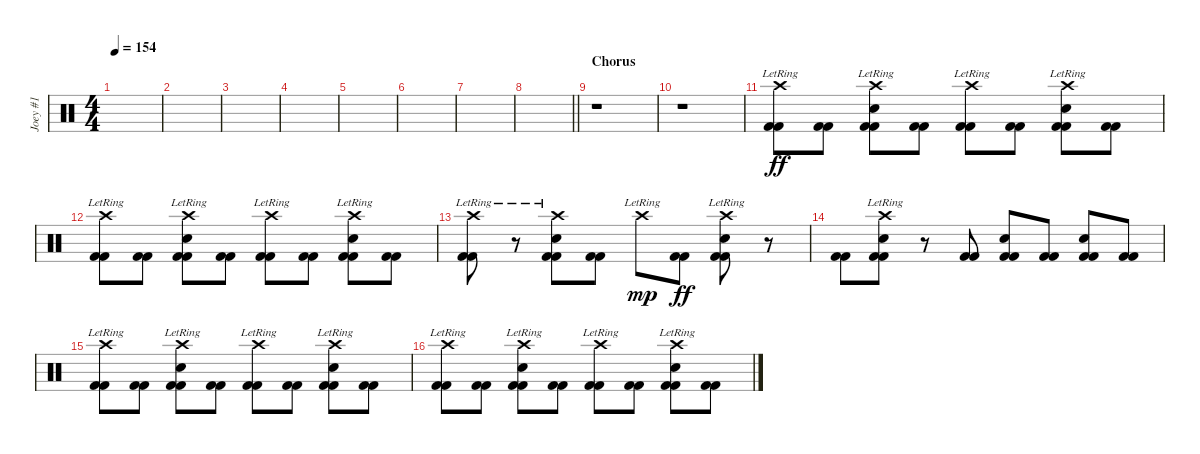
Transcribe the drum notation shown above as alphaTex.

\track ("Joey #1" "Joey #1") {instrument percussion}
\staff {score}
\articulation defaults
\ts (4 4)
\tempo 154
\clef neutral
\ks c
|
|
|
|
|
|
|
\barLineRight lightlight
|
\section ("" "Chorus")
r.1 |
r.1 |
("Crash high (hit)"{lr} "Kick (hit) 2" "Kick (hit) 2").8{dy ff} ("Kick (hit) 2" "Kick (hit) 2").8 ("Crash high (hit)"{lr} "Snare (hit) 2" "Kick (hit) 2" "Kick (hit) 2").8 ("Kick (hit) 2" "Kick (hit) 2").8 ("Crash high (hit)"{lr} "Kick (hit) 2" "Kick (hit) 2").8 ("Kick (hit) 2" "Kick (hit) 2").8 ("Crash high (hit)"{lr} "Snare (hit) 2" "Kick (hit) 2" "Kick (hit) 2").8 ("Kick (hit) 2" "Kick (hit) 2").8 |
("Crash high (hit)"{lr} "Kick (hit) 2" "Kick (hit) 2").8 ("Kick (hit) 2" "Kick (hit) 2").8 ("Crash high (hit)"{lr} "Snare (hit) 2" "Kick (hit) 2" "Kick (hit) 2").8 ("Kick (hit) 2" "Kick (hit) 2").8 ("Crash high (hit)"{lr} "Kick (hit) 2" "Kick (hit) 2").8 ("Kick (hit) 2" "Kick (hit) 2").8 ("Crash high (hit)"{lr} "Snare (hit) 2" "Kick (hit) 2" "Kick (hit) 2").8 ("Kick (hit) 2" "Kick (hit) 2").8 |
("Crash high (hit)"{lr} "Kick (hit) 2" "Kick (hit) 2").8 r.8 ("Crash high (hit)"{lr} "Snare (hit) 2" "Kick (hit) 2" "Kick (hit) 2").8 ("Kick (hit) 2" "Kick (hit) 2").8 "Crash high (hit)"{lr}.8{dy mp} ("Kick (hit) 2" "Kick (hit) 2").8{dy ff} ("Crash high (hit)"{lr} "Snare (hit) 2" "Kick (hit) 2" "Kick (hit) 2").8 r.8 |
("Kick (hit) 2" "Kick (hit) 2").8 ("Crash high (hit)"{lr} "Snare (hit) 2" "Kick (hit) 2" "Kick (hit) 2").8 r.8 ("Kick (hit) 2" "Kick (hit) 2").8 ("Snare (hit) 2" "Kick (hit) 2" "Kick (hit) 2").8 ("Kick (hit) 2" "Kick (hit) 2").8 ("Snare (hit) 2" "Kick (hit) 2" "Kick (hit) 2").8 ("Kick (hit) 2" "Kick (hit) 2").8 |
("Crash high (hit)"{lr} "Kick (hit) 2" "Kick (hit) 2").8 ("Kick (hit) 2" "Kick (hit) 2").8 ("Crash high (hit)"{lr} "Snare (hit) 2" "Kick (hit) 2" "Kick (hit) 2").8 ("Kick (hit) 2" "Kick (hit) 2").8 ("Crash high (hit)"{lr} "Kick (hit) 2" "Kick (hit) 2").8 ("Kick (hit) 2" "Kick (hit) 2").8 ("Crash high (hit)"{lr} "Snare (hit) 2" "Kick (hit) 2" "Kick (hit) 2").8 ("Kick (hit) 2" "Kick (hit) 2").8 |
("Crash high (hit)"{lr} "Kick (hit) 2" "Kick (hit) 2").8 ("Kick (hit) 2" "Kick (hit) 2").8 ("Crash high (hit)"{lr} "Snare (hit) 2" "Kick (hit) 2" "Kick (hit) 2").8 ("Kick (hit) 2" "Kick (hit) 2").8 ("Crash high (hit)"{lr} "Kick (hit) 2" "Kick (hit) 2").8 ("Kick (hit) 2" "Kick (hit) 2").8 ("Crash high (hit)"{lr} "Snare (hit) 2" "Kick (hit) 2" "Kick (hit) 2").8 ("Kick (hit) 2" "Kick (hit) 2").8
